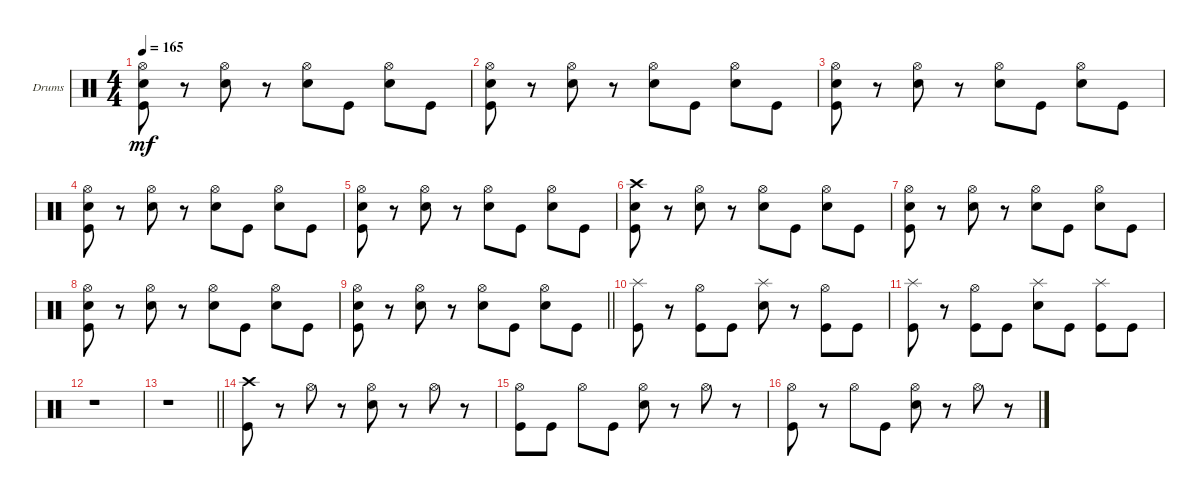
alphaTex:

\defaultSystemsLayout 4
\bracketExtendMode groupsimilarinstruments
\firstSystemTrackNameOrientation horizontal
\otherSystemsTrackNameOrientation horizontal
\track ("Drumkit" "Drums") {instrument percussion}
\staff {score}
\articulation defaults
\ts (4 4)
\tempo 165
\clef neutral
\ks c
("Kick (hit)" "Snare (hit) 2" "Hi-Hat (open)").8{dy mf} r.8 ("Snare (hit) 2" "Hi-Hat (open)").8 r.8 ("Snare (hit) 2" "Hi-Hat (open)").8 "Kick (hit)".8 ("Snare (hit) 2" "Hi-Hat (open)").8 "Kick (hit)".8 |
("Kick (hit)" "Snare (hit) 2" "Hi-Hat (open)").8 r.8 ("Snare (hit) 2" "Hi-Hat (open)").8 r.8 ("Snare (hit) 2" "Hi-Hat (open)").8 "Kick (hit)".8 ("Snare (hit) 2" "Hi-Hat (open)").8 "Kick (hit)".8 |
("Kick (hit)" "Snare (hit) 2" "Hi-Hat (open)").8 r.8 ("Snare (hit) 2" "Hi-Hat (open)").8 r.8 ("Snare (hit) 2" "Hi-Hat (open)").8 "Kick (hit)".8 ("Snare (hit) 2" "Hi-Hat (open)").8 "Kick (hit)".8 |
("Kick (hit)" "Snare (hit) 2" "Hi-Hat (open)").8 r.8 ("Snare (hit) 2" "Hi-Hat (open)").8 r.8 ("Snare (hit) 2" "Hi-Hat (open)").8 "Kick (hit)".8 ("Snare (hit) 2" "Hi-Hat (open)").8 "Kick (hit)".8 |
("Kick (hit)" "Snare (hit) 2" "Hi-Hat (open)").8 r.8 ("Snare (hit) 2" "Hi-Hat (open)").8 r.8 ("Snare (hit) 2" "Hi-Hat (open)").8 "Kick (hit)".8 ("Snare (hit) 2" "Hi-Hat (open)").8 "Kick (hit)".8 |
("Kick (hit)" "Snare (hit) 2" "Crash high (hit)").8 r.8 ("Snare (hit) 2" "Hi-Hat (open)").8 r.8 ("Snare (hit) 2" "Hi-Hat (open)").8 "Kick (hit)".8 ("Snare (hit) 2" "Hi-Hat (open)").8 "Kick (hit)".8 |
("Kick (hit)" "Snare (hit) 2" "Hi-Hat (open)").8 r.8 ("Snare (hit) 2" "Hi-Hat (open)").8 r.8 ("Snare (hit) 2" "Hi-Hat (open)").8 "Kick (hit)".8 ("Snare (hit) 2" "Hi-Hat (open)").8 "Kick (hit)".8 |
("Kick (hit)" "Snare (hit) 2" "Hi-Hat (open)").8 r.8 ("Snare (hit) 2" "Hi-Hat (open)").8 r.8 ("Snare (hit) 2" "Hi-Hat (open)").8 "Kick (hit)".8 ("Snare (hit) 2" "Hi-Hat (open)").8 "Kick (hit)".8 |
\barLineRight lightlight
("Kick (hit)" "Snare (hit) 2" "Hi-Hat (open)").8 r.8 ("Snare (hit) 2" "Hi-Hat (open)").8 r.8 ("Snare (hit) 2" "Hi-Hat (open)").8 "Kick (hit)".8 ("Snare (hit) 2" "Hi-Hat (open)").8 "Kick (hit)".8 |
("Kick (hit)" "Splash (hit)").8 r.8 ("Hi-Hat (open)" "Kick (hit)").8 "Kick (hit)".8 ("Snare (hit) 2" "Splash (hit)").8 r.8 ("Hi-Hat (open)" "Kick (hit)").8 "Kick (hit)".8 |
("Kick (hit)" "Splash (hit)").8 r.8 ("Hi-Hat (open)" "Kick (hit)").8 "Kick (hit)".8 ("Snare (hit) 2" "Splash (hit)").8 "Kick (hit)".8 ("Kick (hit)" "Splash (hit)").8 "Kick (hit)".8 |
r.1 |
\barLineRight lightlight
r.1 |
("Kick (hit)" "Crash high (hit)").8 r.8 "Hi-Hat (open)".8 r.8 ("Hi-Hat (open)" "Snare (hit) 2").8 r.8 "Hi-Hat (open)".8 r.8 |
("Kick (hit)" "Hi-Hat (open)").8 "Kick (hit)".8 "Hi-Hat (open)".8 "Kick (hit)".8 ("Hi-Hat (open)" "Snare (hit) 2").8 r.8 "Hi-Hat (open)".8 r.8 |
("Kick (hit)" "Hi-Hat (open)").8 r.8 "Hi-Hat (open)".8 "Kick (hit)".8 ("Hi-Hat (open)" "Snare (hit) 2").8 r.8 "Hi-Hat (open)".8 r.8
